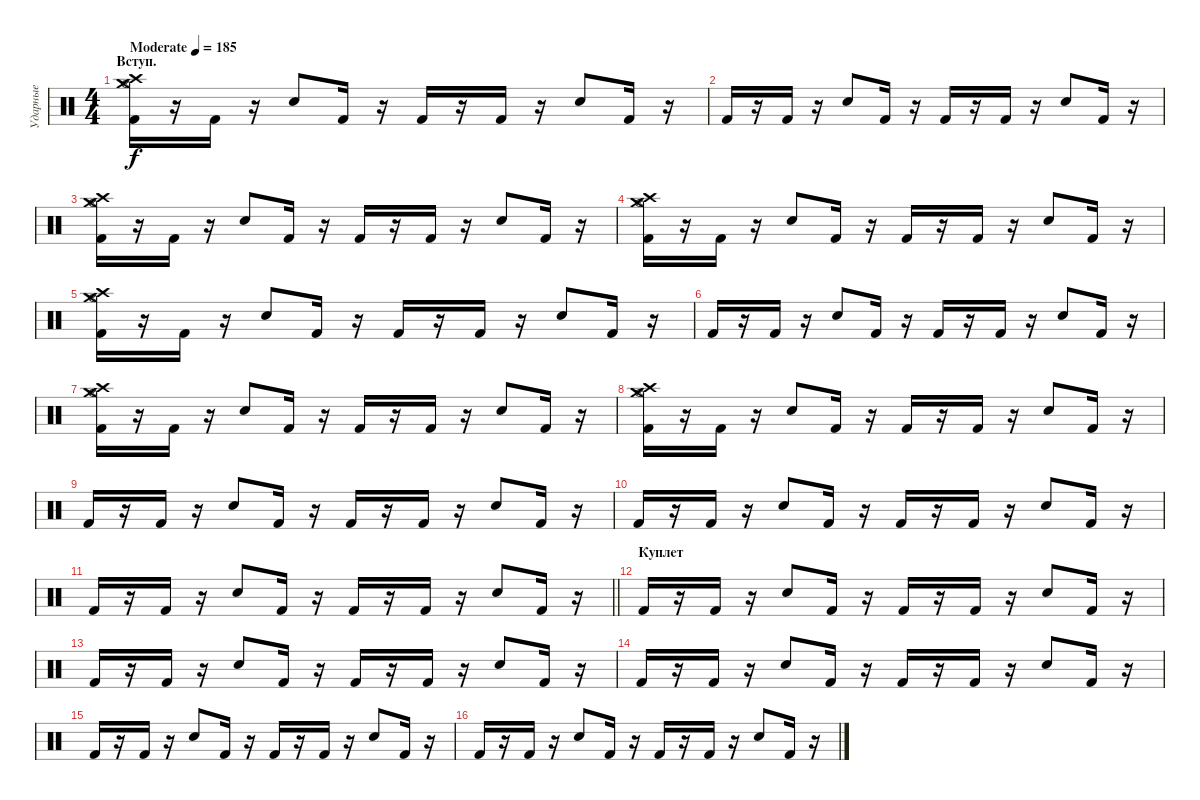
\track ("Ударные" "Ударные") {instrument percussion}
\staff {score}
\articulation defaults
\ts (4 4)
\section ("" "Вступ.")
\tempo (185 "Moderate")
\clef neutral
\ks c
("Kick (hit) 2" "Crash high (hit)" "Crash medium (hit)" "Hi-Hat (open)").16{dy f} r.16 "Kick (hit) 2".16 r.16 "Electric Snare (hit)".8 "Kick (hit) 2".16 r.16 "Kick (hit) 2".16 r.16 "Kick (hit) 2".16 r.16 "Electric Snare (hit)".8 "Kick (hit) 2".16 r.16 |
"Kick (hit) 2".16 r.16 "Kick (hit) 2".16 r.16 "Electric Snare (hit)".8 "Kick (hit) 2".16 r.16 "Kick (hit) 2".16 r.16 "Kick (hit) 2".16 r.16 "Electric Snare (hit)".8 "Kick (hit) 2".16 r.16 |
("Kick (hit) 2" "Crash high (hit)" "Crash medium (hit)" "Hi-Hat (open)").16 r.16 "Kick (hit) 2".16 r.16 "Electric Snare (hit)".8 "Kick (hit) 2".16 r.16 "Kick (hit) 2".16 r.16 "Kick (hit) 2".16 r.16 "Electric Snare (hit)".8 "Kick (hit) 2".16 r.16 |
("Kick (hit) 2" "Crash high (hit)" "Crash medium (hit)" "Hi-Hat (open)").16 r.16 "Kick (hit) 2".16 r.16 "Electric Snare (hit)".8 "Kick (hit) 2".16 r.16 "Kick (hit) 2".16 r.16 "Kick (hit) 2".16 r.16 "Electric Snare (hit)".8 "Kick (hit) 2".16 r.16 |
("Kick (hit) 2" "Crash high (hit)" "Crash medium (hit)" "Hi-Hat (open)").16 r.16 "Kick (hit) 2".16 r.16 "Electric Snare (hit)".8 "Kick (hit) 2".16 r.16 "Kick (hit) 2".16 r.16 "Kick (hit) 2".16 r.16 "Electric Snare (hit)".8 "Kick (hit) 2".16 r.16 |
"Kick (hit) 2".16 r.16 "Kick (hit) 2".16 r.16 "Electric Snare (hit)".8 "Kick (hit) 2".16 r.16 "Kick (hit) 2".16 r.16 "Kick (hit) 2".16 r.16 "Electric Snare (hit)".8 "Kick (hit) 2".16 r.16 |
("Kick (hit) 2" "Crash high (hit)" "Crash medium (hit)" "Hi-Hat (open)").16 r.16 "Kick (hit) 2".16 r.16 "Electric Snare (hit)".8 "Kick (hit) 2".16 r.16 "Kick (hit) 2".16 r.16 "Kick (hit) 2".16 r.16 "Electric Snare (hit)".8 "Kick (hit) 2".16 r.16 |
("Kick (hit) 2" "Crash high (hit)" "Crash medium (hit)" "Hi-Hat (open)").16 r.16 "Kick (hit) 2".16 r.16 "Electric Snare (hit)".8 "Kick (hit) 2".16 r.16 "Kick (hit) 2".16 r.16 "Kick (hit) 2".16 r.16 "Electric Snare (hit)".8 "Kick (hit) 2".16 r.16 |
"Kick (hit) 2".16 r.16 "Kick (hit) 2".16 r.16 "Electric Snare (hit)".8 "Kick (hit) 2".16 r.16 "Kick (hit) 2".16 r.16 "Kick (hit) 2".16 r.16 "Electric Snare (hit)".8 "Kick (hit) 2".16 r.16 |
"Kick (hit) 2".16 r.16 "Kick (hit) 2".16 r.16 "Electric Snare (hit)".8 "Kick (hit) 2".16 r.16 "Kick (hit) 2".16 r.16 "Kick (hit) 2".16 r.16 "Electric Snare (hit)".8 "Kick (hit) 2".16 r.16 |
\barLineRight lightlight "Kick (hit) 2".16
r.16 "Kick (hit) 2".16 r.16 "Electric Snare (hit)".8 "Kick (hit) 2".16 r.16 "Kick (hit) 2".16 r.16 "Kick (hit) 2".16 r.16 "Electric Snare (hit)".8 "Kick (hit) 2".16 r.16 |
\section ("" "Куплет")
"Kick (hit) 2".16 r.16 "Kick (hit) 2".16 r.16 "Electric Snare (hit)".8 "Kick (hit) 2".16 r.16 "Kick (hit) 2".16 r.16 "Kick (hit) 2".16 r.16 "Electric Snare (hit)".8 "Kick (hit) 2".16 r.16 |
"Kick (hit) 2".16 r.16 "Kick (hit) 2".16 r.16 "Electric Snare (hit)".8 "Kick (hit) 2".16 r.16 "Kick (hit) 2".16 r.16 "Kick (hit) 2".16 r.16 "Electric Snare (hit)".8 "Kick (hit) 2".16 r.16 |
"Kick (hit) 2".16 r.16 "Kick (hit) 2".16 r.16 "Electric Snare (hit)".8 "Kick (hit) 2".16 r.16 "Kick (hit) 2".16 r.16 "Kick (hit) 2".16 r.16 "Electric Snare (hit)".8 "Kick (hit) 2".16 r.16 |
"Kick (hit) 2".16 r.16 "Kick (hit) 2".16 r.16 "Electric Snare (hit)".8 "Kick (hit) 2".16 r.16 "Kick (hit) 2".16 r.16 "Kick (hit) 2".16 r.16 "Electric Snare (hit)".8 "Kick (hit) 2".16 r.16 |
"Kick (hit) 2".16 r.16 "Kick (hit) 2".16 r.16 "Electric Snare (hit)".8 "Kick (hit) 2".16 r.16 "Kick (hit) 2".16 r.16 "Kick (hit) 2".16 r.16 "Electric Snare (hit)".8 "Kick (hit) 2".16 r.16
